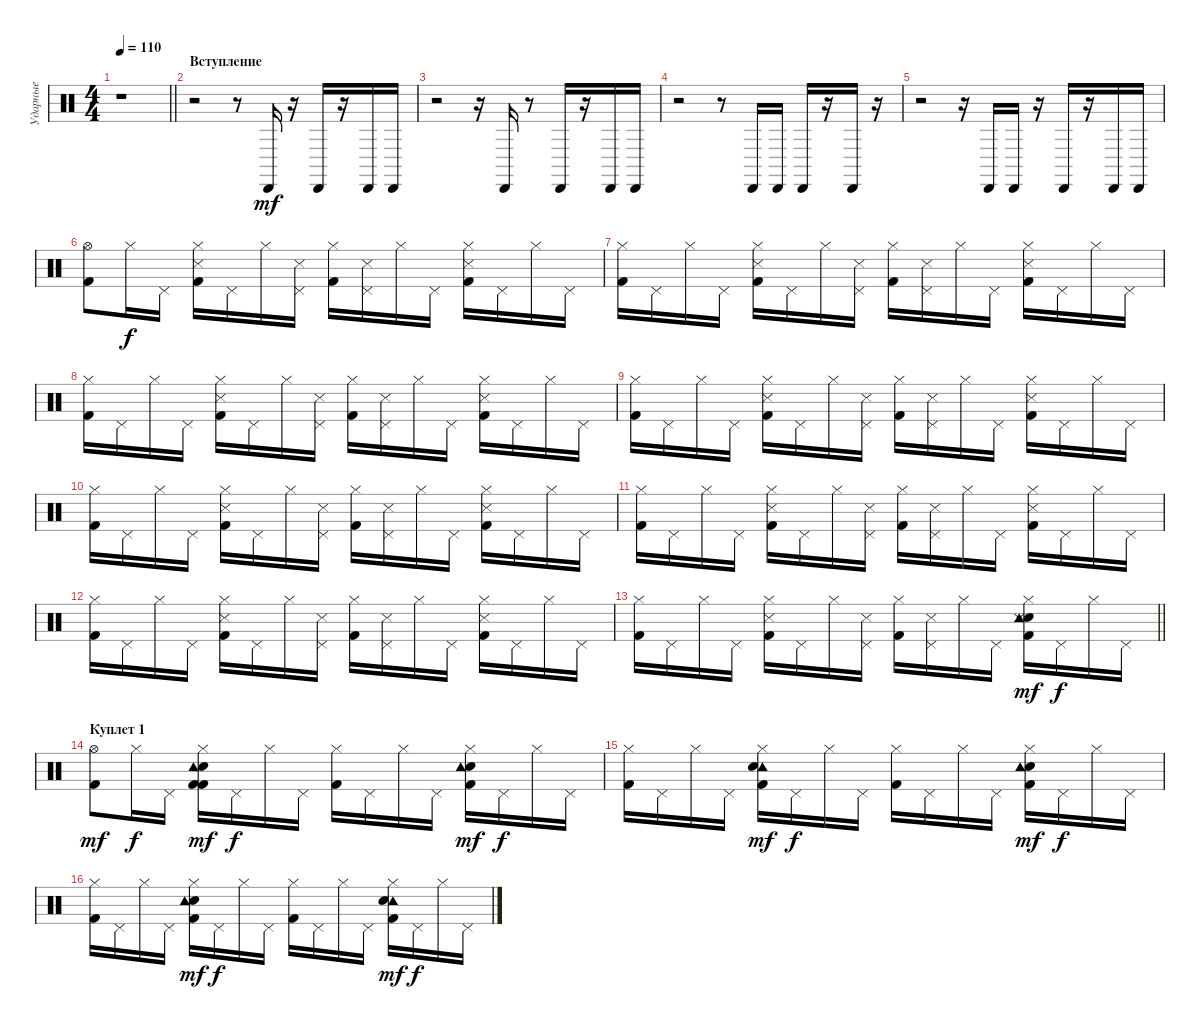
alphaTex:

\track ("Ударные" "Ударные") {instrument percussion}
\staff {score}
\articulation defaults
\ts (4 4)
\tempo 110
\clef neutral
\barLineRight lightlight
\ks c
r.1{dy mf} |
\section ("" "Вступление")
r.2 r.8 "Cabasa (hit)".16 r.16 "Cabasa (hit)".16 r.16 "Cabasa (hit)".16 "Cabasa (hit)".16 |
r.2 r.16 "Cabasa (hit)".16 r.8 "Cabasa (hit)".16 r.16 "Cabasa (hit)".16 "Cabasa (hit)".16 |
r.2 r.8 "Cabasa (hit)".16 "Cabasa (hit)".16 "Cabasa (hit)".16 r.16 "Cabasa (hit)".16 r.16 |
r.2 r.16 "Cabasa (hit)".16 "Cabasa (hit)".16 r.16 "Cabasa (hit)".16 r.16 "Cabasa (hit)".16 "Cabasa (hit)".16 |
("Kick (hit) 2" "Hi-Hat (open)").8 "Hi-Hat (closed)".16{dy f} "Pedal Hi-Hat (hit)".16 ("Kick (hit) 2" "Snare (side stick) 3" "Hi-Hat (closed)").16 "Pedal Hi-Hat (hit)".16 "Hi-Hat (closed)".16 ("Snare (side stick) 3" "Pedal Hi-Hat (hit)").16 ("Kick (hit) 2" "Hi-Hat (closed)").16 ("Snare (side stick) 3" "Pedal Hi-Hat (hit)").16 "Hi-Hat (closed)".16 "Pedal Hi-Hat (hit)".16 ("Snare (side stick) 3" "Kick (hit) 2" "Hi-Hat (closed)").16 "Pedal Hi-Hat (hit)".16 "Hi-Hat (closed)".16 "Pedal Hi-Hat (hit)".16 |
("Kick (hit) 2" "Hi-Hat (closed)").16 "Pedal Hi-Hat (hit)".16 "Hi-Hat (closed)".16 "Pedal Hi-Hat (hit)".16 ("Kick (hit) 2" "Snare (side stick) 3" "Hi-Hat (closed)").16 "Pedal Hi-Hat (hit)".16 "Hi-Hat (closed)".16 ("Snare (side stick) 3" "Pedal Hi-Hat (hit)").16 ("Kick (hit) 2" "Hi-Hat (closed)").16 ("Snare (side stick) 3" "Pedal Hi-Hat (hit)").16 "Hi-Hat (closed)".16 "Pedal Hi-Hat (hit)".16 ("Snare (side stick) 3" "Kick (hit) 2" "Hi-Hat (closed)").16 "Pedal Hi-Hat (hit)".16 "Hi-Hat (closed)".16 "Pedal Hi-Hat (hit)".16 |
("Kick (hit) 2" "Hi-Hat (closed)").16 "Pedal Hi-Hat (hit)".16 "Hi-Hat (closed)".16 "Pedal Hi-Hat (hit)".16 ("Kick (hit) 2" "Snare (side stick) 3" "Hi-Hat (closed)").16 "Pedal Hi-Hat (hit)".16 "Hi-Hat (closed)".16 ("Snare (side stick) 3" "Pedal Hi-Hat (hit)").16 ("Kick (hit) 2" "Hi-Hat (closed)").16 ("Snare (side stick) 3" "Pedal Hi-Hat (hit)").16 "Hi-Hat (closed)".16 "Pedal Hi-Hat (hit)".16 ("Snare (side stick) 3" "Kick (hit) 2" "Hi-Hat (closed)").16 "Pedal Hi-Hat (hit)".16 "Hi-Hat (closed)".16 "Pedal Hi-Hat (hit)".16 |
("Kick (hit) 2" "Hi-Hat (closed)").16 "Pedal Hi-Hat (hit)".16 "Hi-Hat (closed)".16 "Pedal Hi-Hat (hit)".16 ("Snare (side stick) 3" "Kick (hit) 2" "Hi-Hat (closed)").16 "Pedal Hi-Hat (hit)".16 "Hi-Hat (closed)".16 ("Snare (side stick) 3" "Pedal Hi-Hat (hit)").16 ("Kick (hit) 2" "Hi-Hat (closed)").16 ("Snare (side stick) 3" "Pedal Hi-Hat (hit)").16 "Hi-Hat (closed)".16 "Pedal Hi-Hat (hit)".16 ("Snare (side stick) 3" "Kick (hit) 2" "Hi-Hat (closed)").16 "Pedal Hi-Hat (hit)".16 "Hi-Hat (closed)".16 "Pedal Hi-Hat (hit)".16 |
("Kick (hit) 2" "Hi-Hat (closed)").16 "Pedal Hi-Hat (hit)".16 "Hi-Hat (closed)".16 "Pedal Hi-Hat (hit)".16 ("Snare (side stick) 3" "Kick (hit) 2" "Hi-Hat (closed)").16 "Pedal Hi-Hat (hit)".16 "Hi-Hat (closed)".16 ("Snare (side stick) 3" "Pedal Hi-Hat (hit)").16 ("Kick (hit) 2" "Hi-Hat (closed)").16 ("Snare (side stick) 3" "Pedal Hi-Hat (hit)").16 "Hi-Hat (closed)".16 "Pedal Hi-Hat (hit)".16 ("Snare (side stick) 3" "Kick (hit) 2" "Hi-Hat (closed)").16 "Pedal Hi-Hat (hit)".16 "Hi-Hat (closed)".16 "Pedal Hi-Hat (hit)".16 |
("Kick (hit) 2" "Hi-Hat (closed)").16 "Pedal Hi-Hat (hit)".16 "Hi-Hat (closed)".16 "Pedal Hi-Hat (hit)".16 ("Snare (side stick) 3" "Kick (hit) 2" "Hi-Hat (closed)").16 "Pedal Hi-Hat (hit)".16 "Hi-Hat (closed)".16 ("Snare (side stick) 3" "Pedal Hi-Hat (hit)").16 ("Kick (hit) 2" "Hi-Hat (closed)").16 ("Snare (side stick) 3" "Pedal Hi-Hat (hit)").16 "Hi-Hat (closed)".16 "Pedal Hi-Hat (hit)".16 ("Kick (hit) 2" "Snare (side stick) 3" "Hi-Hat (closed)").16 "Pedal Hi-Hat (hit)".16 "Hi-Hat (closed)".16 "Pedal Hi-Hat (hit)".16 |
("Kick (hit) 2" "Hi-Hat (closed)").16 "Pedal Hi-Hat (hit)".16 "Hi-Hat (closed)".16 "Pedal Hi-Hat (hit)".16 ("Snare (side stick) 3" "Kick (hit) 2" "Hi-Hat (closed)").16 "Pedal Hi-Hat (hit)".16 "Hi-Hat (closed)".16 ("Snare (side stick) 3" "Pedal Hi-Hat (hit)").16 ("Kick (hit) 2" "Hi-Hat (closed)").16 ("Snare (side stick) 3" "Pedal Hi-Hat (hit)").16 "Hi-Hat (closed)".16 "Pedal Hi-Hat (hit)".16 ("Kick (hit) 2" "Snare (side stick) 3" "Hi-Hat (closed)").16 "Pedal Hi-Hat (hit)".16 "Hi-Hat (closed)".16 "Pedal Hi-Hat (hit)".16 |
\barLineRight lightlight
("Kick (hit) 2" "Hi-Hat (closed)").16 "Pedal Hi-Hat (hit)".16 "Hi-Hat (closed)".16 "Pedal Hi-Hat (hit)".16 ("Kick (hit) 2" "Snare (side stick) 3" "Hi-Hat (closed)").16 "Pedal Hi-Hat (hit)".16 "Hi-Hat (closed)".16 ("Snare (side stick) 3" "Pedal Hi-Hat (hit)").16 ("Kick (hit) 2" "Hi-Hat (closed)").16 ("Snare (side stick) 3" "Pedal Hi-Hat (hit)").16 "Hi-Hat (closed)".16 "Pedal Hi-Hat (hit)".16 ("Kick (hit) 2" "Snare (hit) 2" "Snare (side stick) 3" "Tambourine (hit)" "Hi-Hat (closed)").16{dy mf} "Pedal Hi-Hat (hit)".16{dy f} "Hi-Hat (closed)".16 "Pedal Hi-Hat (hit)".16 |
\section ("" "Куплет 1")
("Kick (hit) 2" "Hi-Hat (open)").8{dy mf} "Hi-Hat (closed)".16{dy f} "Pedal Hi-Hat (hit)".16 ("Snare (hit) 2" "Kick (hit) 2" "Kick (hit) 2" "Tambourine (hit)" "Hi-Hat (closed)").16{dy mf} "Pedal Hi-Hat (hit)".16{dy f} "Hi-Hat (closed)".16 "Pedal Hi-Hat (hit)".16 ("Kick (hit) 2" "Hi-Hat (closed)").16 "Pedal Hi-Hat (hit)".16 "Hi-Hat (closed)".16 "Pedal Hi-Hat (hit)".16 ("Kick (hit) 2" "Snare (hit) 2" "Tambourine (hit)" "Hi-Hat (closed)").16{dy mf} "Pedal Hi-Hat (hit)".16{dy f} "Hi-Hat (closed)".16 "Pedal Hi-Hat (hit)".16 |
("Kick (hit) 2" "Hi-Hat (closed)").16 "Pedal Hi-Hat (hit)".16 "Hi-Hat (closed)".16 "Pedal Hi-Hat (hit)".16 ("Tambourine (hit)" "Kick (hit) 2" "Snare (hit) 2" "Hi-Hat (closed)").16{dy mf} "Pedal Hi-Hat (hit)".16{dy f} "Hi-Hat (closed)".16 "Pedal Hi-Hat (hit)".16 ("Kick (hit) 2" "Hi-Hat (closed)").16 "Pedal Hi-Hat (hit)".16 "Hi-Hat (closed)".16 "Pedal Hi-Hat (hit)".16 ("Kick (hit) 2" "Snare (hit) 2" "Tambourine (hit)" "Hi-Hat (closed)").16{dy mf} "Pedal Hi-Hat (hit)".16{dy f} "Hi-Hat (closed)".16 "Pedal Hi-Hat (hit)".16 |
("Kick (hit) 2" "Hi-Hat (closed)").16 "Pedal Hi-Hat (hit)".16 "Hi-Hat (closed)".16 "Pedal Hi-Hat (hit)".16 ("Snare (hit) 2" "Kick (hit) 2" "Tambourine (hit)" "Hi-Hat (closed)").16{dy mf} "Pedal Hi-Hat (hit)".16{dy f} "Hi-Hat (closed)".16 "Pedal Hi-Hat (hit)".16 ("Kick (hit) 2" "Hi-Hat (closed)").16 "Pedal Hi-Hat (hit)".16 "Hi-Hat (closed)".16 "Pedal Hi-Hat (hit)".16 ("Kick (hit) 2" "Tambourine (hit)" "Snare (hit) 2" "Hi-Hat (closed)").16{dy mf} "Pedal Hi-Hat (hit)".16{dy f} "Hi-Hat (closed)".16 "Pedal Hi-Hat (hit)".16
